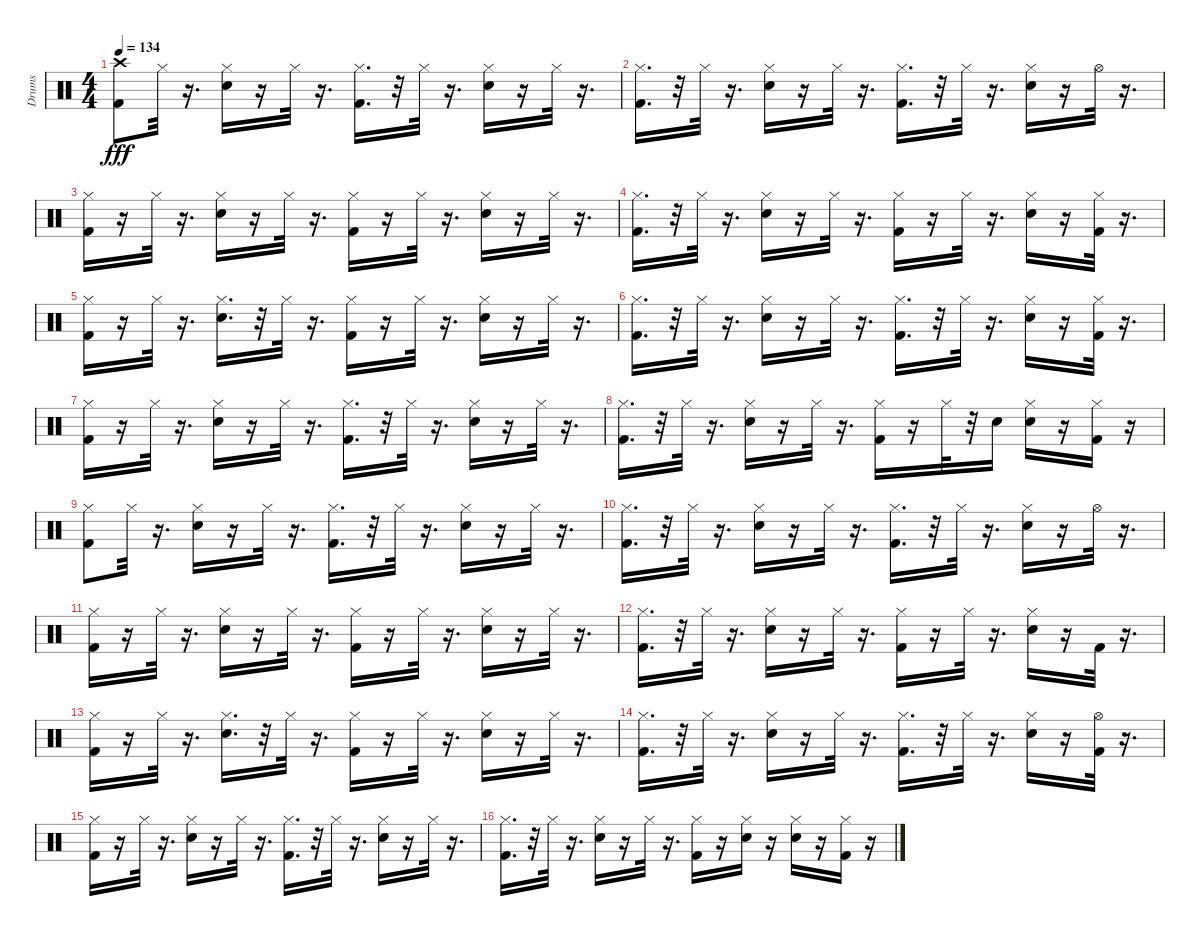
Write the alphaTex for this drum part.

\track ("Drums" "Drums") {instrument percussion}
\staff {score}
\articulation defaults
\ts (4 4)
\tempo 134
\clef neutral
\ks c
("Kick (hit) 2" "Crash high (hit)").8{dy fff} "Hi-Hat (closed)".32 r.16{d} ("Snare (hit) 2" "Hi-Hat (closed)").16 r.16 "Hi-Hat (closed)".32 r.16{d} ("Kick (hit) 2" "Hi-Hat (closed)").16{d} r.32 "Hi-Hat (closed)".32 r.16{d} ("Snare (hit) 2" "Hi-Hat (closed)").16 r.16 "Hi-Hat (closed)".32 r.16{d} |
("Kick (hit) 2" "Hi-Hat (closed)").16{d} r.32 "Hi-Hat (closed)".32 r.16{d} ("Snare (hit) 2" "Hi-Hat (closed)").16 r.16 "Hi-Hat (closed)".32 r.16{d} ("Kick (hit) 2" "Hi-Hat (closed)").16{d} r.32 "Hi-Hat (closed)".32 r.16{d} ("Snare (hit) 2" "Hi-Hat (closed)").16 r.16 "Hi-Hat (open)".32 r.16{d} |
("Kick (hit) 2" "Hi-Hat (closed)").16 r.16 "Hi-Hat (closed)".32 r.16{d} ("Snare (hit) 2" "Hi-Hat (closed)").16 r.16 "Hi-Hat (closed)".32 r.16{d} ("Kick (hit) 2" "Hi-Hat (closed)").16 r.16 "Hi-Hat (closed)".32 r.16{d} ("Snare (hit) 2" "Hi-Hat (closed)").16 r.16 "Hi-Hat (closed)".32 r.16{d} |
("Kick (hit) 2" "Hi-Hat (closed)").16{d} r.32 "Hi-Hat (closed)".32 r.16{d} ("Snare (hit) 2" "Hi-Hat (closed)").16 r.16 "Hi-Hat (closed)".32 r.16{d} ("Kick (hit) 2" "Hi-Hat (closed)").16 r.16 "Hi-Hat (closed)".32 r.16{d} ("Snare (hit) 2" "Hi-Hat (closed)").16 r.16 ("Kick (hit) 2" "Hi-Hat (closed)").32 r.16{d} |
("Kick (hit) 2" "Hi-Hat (closed)").16 r.16 "Hi-Hat (closed)".32 r.16{d} ("Snare (hit) 2" "Hi-Hat (closed)").16{d} r.32 "Hi-Hat (closed)".32 r.16{d} ("Kick (hit) 2" "Hi-Hat (closed)").16 r.16 "Hi-Hat (closed)".32 r.16{d} ("Snare (hit) 2" "Hi-Hat (closed)").16 r.16 "Hi-Hat (closed)".32 r.16{d} |
("Kick (hit) 2" "Hi-Hat (closed)").16{d} r.32 "Hi-Hat (closed)".32 r.16{d} ("Snare (hit) 2" "Hi-Hat (closed)").16 r.16 "Hi-Hat (closed)".32 r.16{d} ("Kick (hit) 2" "Hi-Hat (closed)").16{d} r.32 "Hi-Hat (closed)".32 r.16{d} ("Snare (hit) 2" "Hi-Hat (closed)").16 r.16 ("Kick (hit) 2" "Hi-Hat (closed)").32 r.16{d} |
("Kick (hit) 2" "Hi-Hat (closed)").16 r.16 "Hi-Hat (closed)".32 r.16{d} ("Snare (hit) 2" "Hi-Hat (closed)").16 r.16 "Hi-Hat (closed)".32 r.16{d} ("Kick (hit) 2" "Hi-Hat (closed)").16{d} r.32 "Hi-Hat (closed)".32 r.16{d} ("Snare (hit) 2" "Hi-Hat (closed)").16 r.16 "Hi-Hat (closed)".32 r.16{d} |
("Kick (hit) 2" "Hi-Hat (closed)").16{d} r.32 "Hi-Hat (closed)".32 r.16{d} ("Snare (hit) 2" "Hi-Hat (closed)").16 r.16 "Hi-Hat (closed)".32 r.16{d} ("Kick (hit) 2" "Hi-Hat (closed)").16 r.16 "Hi-Hat (closed)".32 r.32 "Snare (hit) 2".16 ("Snare (hit) 2" "Hi-Hat (closed)").16 r.16 ("Kick (hit) 2" "Hi-Hat (closed)").16 r.16 |
("Kick (hit) 2" "Hi-Hat (closed)").8 "Hi-Hat (closed)".32 r.16{d} ("Snare (hit) 2" "Hi-Hat (closed)").16 r.16 "Hi-Hat (closed)".32 r.16{d} ("Kick (hit) 2" "Hi-Hat (closed)").16{d} r.32 "Hi-Hat (closed)".32 r.16{d} ("Snare (hit) 2" "Hi-Hat (closed)").16 r.16 "Hi-Hat (closed)".32 r.16{d} |
("Kick (hit) 2" "Hi-Hat (closed)").16{d} r.32 "Hi-Hat (closed)".32 r.16{d} ("Snare (hit) 2" "Hi-Hat (closed)").16 r.16 "Hi-Hat (closed)".32 r.16{d} ("Kick (hit) 2" "Hi-Hat (closed)").16{d} r.32 "Hi-Hat (closed)".32 r.16{d} ("Snare (hit) 2" "Hi-Hat (closed)").16 r.16 "Hi-Hat (open)".32 r.16{d} |
("Kick (hit) 2" "Hi-Hat (closed)").16 r.16 "Hi-Hat (closed)".32 r.16{d} ("Snare (hit) 2" "Hi-Hat (closed)").16 r.16 "Hi-Hat (closed)".32 r.16{d} ("Kick (hit) 2" "Hi-Hat (closed)").16 r.16 "Hi-Hat (closed)".32 r.16{d} ("Snare (hit) 2" "Hi-Hat (closed)").16 r.16 "Hi-Hat (closed)".32 r.16{d} |
("Kick (hit) 2" "Hi-Hat (closed)").16{d} r.32 "Hi-Hat (closed)".32 r.16{d} ("Snare (hit) 2" "Hi-Hat (closed)").16 r.16 "Hi-Hat (closed)".32 r.16{d} ("Kick (hit) 2" "Hi-Hat (closed)").16 r.16 "Hi-Hat (closed)".32 r.16{d} ("Snare (hit) 2" "Hi-Hat (closed)").16 r.16 "Kick (hit) 2".32 r.16{d} |
("Kick (hit) 2" "Hi-Hat (closed)").16 r.16 "Hi-Hat (closed)".32 r.16{d} ("Snare (hit) 2" "Hi-Hat (closed)").16{d} r.32 "Hi-Hat (closed)".32 r.16{d} ("Kick (hit) 2" "Hi-Hat (closed)").16 r.16 "Hi-Hat (closed)".32 r.16{d} ("Snare (hit) 2" "Hi-Hat (closed)").16 r.16 "Hi-Hat (closed)".32 r.16{d} |
("Kick (hit) 2" "Hi-Hat (closed)").16{d} r.32 "Hi-Hat (closed)".32 r.16{d} ("Snare (hit) 2" "Hi-Hat (closed)").16 r.16 "Hi-Hat (closed)".32 r.16{d} ("Kick (hit) 2" "Hi-Hat (closed)").16{d} r.32 "Hi-Hat (closed)".32 r.16{d} ("Snare (hit) 2" "Hi-Hat (closed)").16 r.16 ("Kick (hit) 2" "Hi-Hat (open)").32 r.16{d} |
("Kick (hit) 2" "Hi-Hat (closed)").16 r.16 "Hi-Hat (closed)".32 r.16{d} ("Snare (hit) 2" "Hi-Hat (closed)").16 r.16 "Hi-Hat (closed)".32 r.16{d} ("Kick (hit) 2" "Hi-Hat (closed)").16{d} r.32 "Hi-Hat (closed)".32 r.16{d} ("Snare (hit) 2" "Hi-Hat (closed)").16 r.16 "Hi-Hat (closed)".32 r.16{d} |
("Kick (hit) 2" "Hi-Hat (closed)").16{d} r.32 "Hi-Hat (closed)".32 r.16{d} ("Snare (hit) 2" "Hi-Hat (closed)").16 r.16 "Hi-Hat (closed)".32 r.16{d} ("Kick (hit) 2" "Hi-Hat (closed)").16 r.16 ("Snare (hit) 2" "Hi-Hat (closed)").16 r.16 ("Snare (hit) 2" "Hi-Hat (closed)").16 r.16 ("Kick (hit) 2" "Hi-Hat (closed)").16 r.16
